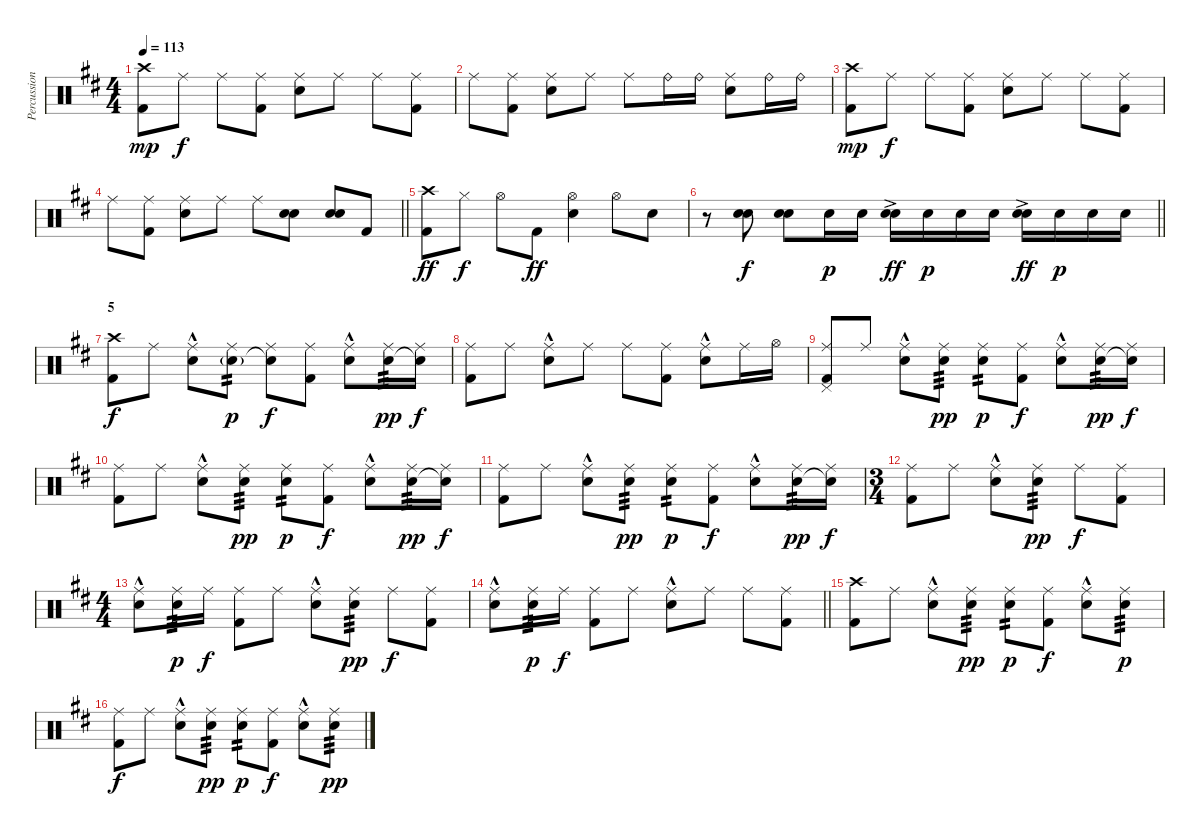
\track ("Percussion" "Percussion") {instrument percussion}
\staff {score}
\articulation defaults
\ts (4 4)
\section ("" "")
\tempo 113
\clef neutral
\ks bminor
("Crash high (hit)" "Kick (hit) 2").8{dy mp} "Ride (middle)".8{dy f} "Ride (middle)".8 ("Ride (middle)" "Kick (hit) 2").8 ("Ride (middle)" "Snare (hit) 2").8 "Ride (middle)".8 "Ride (middle)".8 ("Ride (middle)" "Kick (hit) 2").8 |
"Ride (middle)".8 ("Ride (middle)" "Kick (hit) 2").8 ("Ride (middle)" "Snare (hit) 2").8 "Ride (middle)".8 "Ride (middle)".8 "Ride (bell)".16 "Ride (bell)".16 ("Ride (middle)" "Snare (hit) 2").8 "Ride (bell)".16 "Ride (bell)".16 |
("Crash high (hit)" "Kick (hit) 2").8{dy mp} "Ride (middle)".8{dy f} "Ride (middle)".8 ("Ride (middle)" "Kick (hit) 2").8 ("Ride (middle)" "Snare (hit) 2").8 "Ride (middle)".8 "Ride (middle)".8 ("Ride (middle)" "Kick (hit) 2").8 |
\barLineRight lightlight "Ride (middle)".8
("Ride (middle)" "Kick (hit) 2").8 ("Ride (middle)" "Snare (hit) 2").8 "Ride (middle)".8 "Ride (middle)".8 ("Snare (hit) 2" "Snare (hit) 2").8{bu 60} ("Snare (hit) 2" "Snare (hit) 2").8{bd 60} "Kick (hit) 2".8 |
\section ("" "")
("Crash high (hit)" "Kick (hit) 2").8{dy ff} "Hi-Hat (closed)".8{dy f} "Hi-Hat (open)".8 "Kick (hit) 2".8{dy ff} ("Hi-Hat (open)" "Snare (hit) 2").4 "Hi-Hat (open)".8 "Snare (hit) 2".8 |
\barLineRight lightlight
r.8 ("Snare (hit) 2" "Snare (hit) 2").8{bu 60 dy f} ("Snare (hit) 2" "Snare (hit) 2").8{bd 60} "Snare (hit) 2".16{dy p} "Snare (hit) 2".16 ("Snare (hit) 2"{ac} "Snare (hit) 2").16{bu 120 dy ff} "Snare (hit) 2".16{dy p} "Snare (hit) 2".16 "Snare (hit) 2".16 ("Snare (hit) 2"{ac} "Snare (hit) 2").16{bu 120 dy ff} "Snare (hit) 2".16{dy p} "Snare (hit) 2".16 "Snare (hit) 2".16 |
\section ("" "5")
("Crash high (hit)" "Kick (hit) 2").8{dy f} "Ride (middle)".8 ("Ride (middle)" "Snare (hit) 2"{hac}).8 ("Ride (middle)" "Snare (hit) 2"{g}).8{tp 2 dy p} ("Ride (middle)" "Snare (hit) 2"{t}).8{dy f} ("Ride (middle)" "Kick (hit) 2").8 ("Ride (middle)" "Snare (hit) 2"{hac}).8 ("Ride (middle)" "Snare (hit) 2").16{tp 3 dy pp} ("Ride (middle)" "Snare (hit) 2"{t}).16{dy f} |
("Ride (middle)" "Kick (hit) 2").8 "Ride (middle)".8 ("Ride (middle)" "Snare (hit) 2"{hac}).8 "Ride (middle)".8 "Ride (middle)".8 ("Ride (middle)" "Kick (hit) 2").8 ("Ride (middle)" "Snare (hit) 2"{hac}).8 "Ride (middle)".16 "Hi-Hat (open)".16 |
("Ride (middle)" "Pedal Hi-Hat (hit)" "Kick (hit) 2").8 "Ride (middle)".8 ("Ride (middle)" "Snare (hit) 2"{hac}).8 ("Ride (middle)" "Snare (hit) 2").8{tp 3 dy pp} ("Ride (middle)" "Snare (hit) 2").8{tp 2 dy p} ("Ride (middle)" "Kick (hit) 2").8{dy f} ("Ride (middle)" "Snare (hit) 2"{hac}).8 ("Ride (middle)" "Snare (hit) 2").16{tp 3 dy pp} ("Ride (middle)" "Snare (hit) 2"{t}).16{dy f} |
("Ride (middle)" "Kick (hit) 2").8 "Ride (middle)".8 ("Ride (middle)" "Snare (hit) 2"{hac}).8 ("Ride (middle)" "Snare (hit) 2").8{tp 3 dy pp} ("Ride (middle)" "Snare (hit) 2").8{tp 2 dy p} ("Ride (middle)" "Kick (hit) 2").8{dy f} ("Ride (middle)" "Snare (hit) 2"{hac}).8 ("Ride (middle)" "Snare (hit) 2").16{tp 3 dy pp} ("Ride (middle)" "Snare (hit) 2"{t}).16{dy f} |
("Ride (middle)" "Kick (hit) 2").8 "Ride (middle)".8 ("Ride (middle)" "Snare (hit) 2"{hac}).8 ("Ride (middle)" "Snare (hit) 2").8{tp 3 dy pp} ("Ride (middle)" "Snare (hit) 2").8{tp 2 dy p} ("Ride (middle)" "Kick (hit) 2").8{dy f} ("Ride (middle)" "Snare (hit) 2"{hac}).8 ("Ride (middle)" "Snare (hit) 2").16{tp 3 dy pp} ("Ride (middle)" "Snare (hit) 2"{t}).16{dy f} |
\ts (3 4)
("Ride (middle)" "Kick (hit) 2").8 "Ride (middle)".8 ("Ride (middle)" "Snare (hit) 2"{hac}).8 ("Ride (middle)" "Snare (hit) 2").8{tp 3 dy pp} "Ride (middle)".8{dy f} ("Ride (middle)" "Kick (hit) 2").8 |
\ts (4 4)
("Ride (middle)" "Snare (hit) 2"{hac}).8 ("Ride (middle)" "Snare (hit) 2").16{tp 3 dy p} "Ride (middle)".16{dy f} ("Ride (middle)" "Kick (hit) 2").8 "Ride (middle)".8 ("Ride (middle)" "Snare (hit) 2"{hac}).8 ("Ride (middle)" "Snare (hit) 2").8{tp 3 dy pp} "Ride (middle)".8{dy f} ("Ride (middle)" "Kick (hit) 2").8 |
\barLineRight lightlight
("Ride (middle)" "Snare (hit) 2"{hac}).8 ("Ride (middle)" "Snare (hit) 2").16{tp 3 dy p} "Ride (middle)".16{dy f} ("Ride (middle)" "Kick (hit) 2").8 "Ride (middle)".8 ("Ride (middle)" "Snare (hit) 2"{hac}).8 "Ride (middle)".8 "Ride (middle)".8 ("Ride (middle)" "Kick (hit) 2").8 |
\section ("" "")
("Crash high (hit)" "Kick (hit) 2").8 "Ride (middle)".8 ("Ride (middle)" "Snare (hit) 2"{hac}).8 ("Ride (middle)" "Snare (hit) 2").8{tp 3 dy pp} ("Ride (middle)" "Snare (hit) 2").8{tp 2 dy p} ("Ride (middle)" "Kick (hit) 2").8{dy f} ("Ride (middle)" "Snare (hit) 2"{hac}).8 ("Ride (middle)" "Snare (hit) 2").8{tp 3 dy p} |
("Ride (middle)" "Kick (hit) 2").8{dy f} "Ride (middle)".8 ("Ride (middle)" "Snare (hit) 2"{hac}).8 ("Ride (middle)" "Snare (hit) 2").8{tp 3 dy pp} ("Ride (middle)" "Snare (hit) 2").8{tp 2 dy p} ("Ride (middle)" "Kick (hit) 2").8{dy f} ("Ride (middle)" "Snare (hit) 2"{hac}).8 ("Ride (middle)" "Snare (hit) 2").8{tp 3 dy pp}
